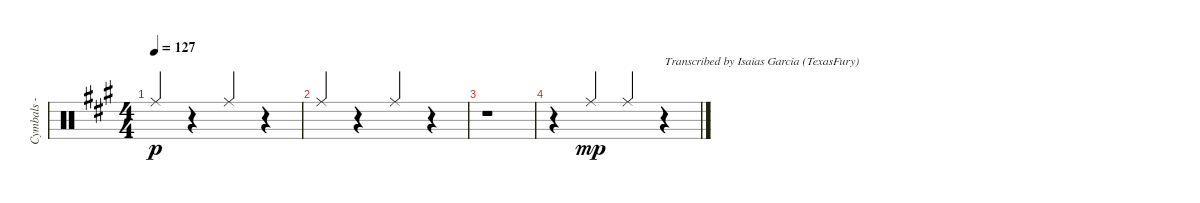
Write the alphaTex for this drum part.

\track ("Cymbals - ride" "Cymbals - ") {instrument percussion}
\staff {score}
\articulation defaults
\ts (4 4)
\tempo 127
\clef neutral
\ks a "Ride (middle)".4{dy p beam Up}
r.4 "Ride (middle)".4{beam Up} r.4 |
"Ride (middle)".4{beam Up} r.4 "Ride (middle)".4{beam Up} r.4 |
r.1 |
r.4 "Ride (middle)".4{dy mp beam Up} "Ride (middle)".4{beam Up} r.4{txt "Transcribed by Isaias Garcia (TexasFury)"}
